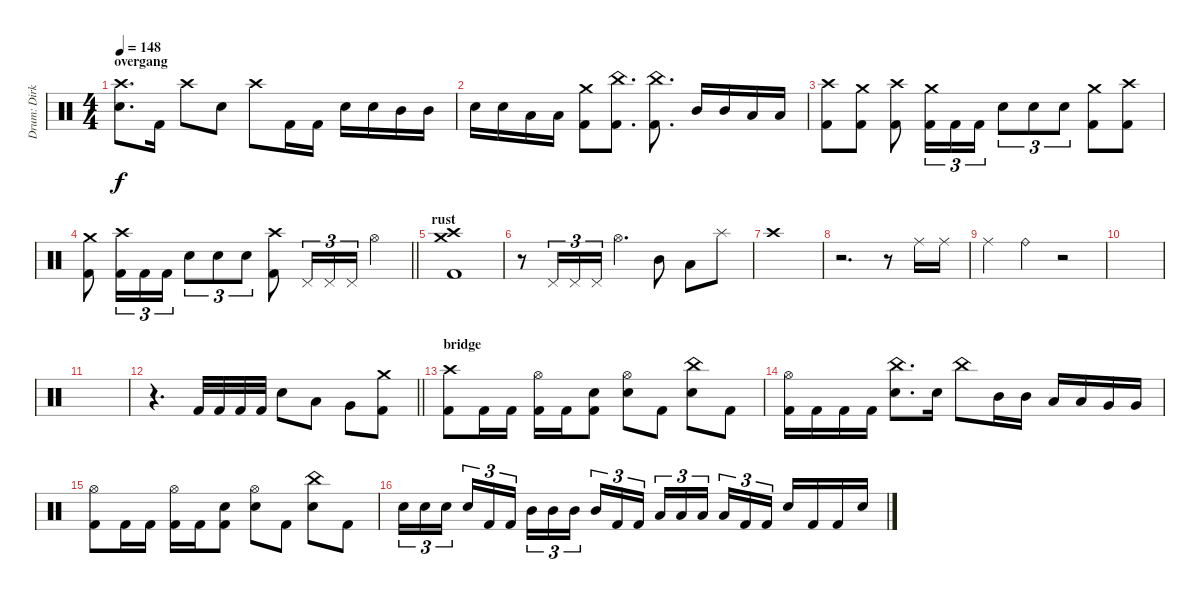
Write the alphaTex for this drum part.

\track ("Drum: Dirk" "Drum: Dirk") {instrument percussion}
\staff {score}
\articulation defaults
\ts (4 4)
\section ("" "overgang")
\tempo 148
\clef neutral
\ks c
("Crash high (hit)" "Electric Snare (hit)").8{d dy f} "Kick (hit) 2".16 "Crash high (hit)".8 "Electric Snare (hit)".8 "Crash high (hit)".8 "Kick (hit) 2".16 "Kick (hit) 2".16 "Electric Snare (hit)".16 "Electric Snare (hit)".16 "Mid Tom (hit)".16 "Mid Tom (hit)".16 |
"Electric Snare (hit)".16 "Electric Snare (hit)".16 "Low Tom (hit)".16 "Low Tom (hit)".16 ("Crash medium (hit)" "Kick (hit) 2").8 ("China (hit)" "Kick (hit) 2").8{d} ("China (hit)" "Kick (hit) 2").8{d} "Mid Tom (hit)".16 "Mid Tom (hit)".16 "Low Tom (hit)".16 "Low Tom (hit)".16 |
("Crash high (hit)" "Kick (hit) 2").8 ("Crash medium (hit)" "Kick (hit) 2").8 ("Crash high (hit)" "Kick (hit) 2").8 ("Crash medium (hit)" "Kick (hit) 2").16{tu (3 2)} "Kick (hit) 2".16{tu (3 2)} "Kick (hit) 2".16{tu (3 2)} "Electric Snare (hit)".8{tu (3 2)} "Electric Snare (hit)".8{tu (3 2)} "Electric Snare (hit)".8{tu (3 2)} ("Crash medium (hit)" "Kick (hit) 2").8 ("Crash high (hit)" "Kick (hit) 2").8 |
\barLineRight lightlight
("Crash medium (hit)" "Kick (hit) 2").8 ("Crash high (hit)" "Kick (hit) 2").16{tu (3 2)} "Kick (hit) 2".16{tu (3 2)} "Kick (hit) 2".16{tu (3 2)} "Electric Snare (hit)".8{tu (3 2)} "Electric Snare (hit)".8{tu (3 2)} "Electric Snare (hit)".8{tu (3 2)} ("Crash high (hit)" "Kick (hit) 2").8 "Pedal Hi-Hat (hit)".16{tu (3 2)} "Pedal Hi-Hat (hit)".16{tu (3 2)} "Pedal Hi-Hat (hit)".16{tu (3 2)} "Hi-Hat (open)".4 |
\section ("" "rust")
("Crash high (hit)" "Crash medium (hit)" "Kick (hit) 2").1 |
r.8 "Pedal Hi-Hat (hit)".16{tu (3 2)} "Pedal Hi-Hat (hit)".16{tu (3 2)} "Pedal Hi-Hat (hit)".16{tu (3 2)} "Hi-Hat (open)".4{d} "Mid Tom (hit)".8 "Low Tom (hit)".8 "Splash (hit)".8 |
"Crash high (hit)".1 |
r.2{d} r.8 "Ride (middle)".16 "Ride (middle)".16 |
"Ride (middle)".4 "Ride (bell)".4 r.2 |
|
|
\barLineRight lightlight
r.4{d} "Kick (hit) 2".32 "Kick (hit) 2".32 "Kick (hit) 2".32 "Kick (hit) 2".32 "Electric Snare (hit)".8 "Low Tom (hit)".8 "Very Low Tom (hit)".8 ("Crash medium (hit)" "Kick (hit) 2").8 |
\section ("" "bridge")
("Crash high (hit)" "Kick (hit) 2").8 "Kick (hit) 2".16 "Kick (hit) 2".16 ("Hi-Hat (open)" "Kick (hit) 2").16 "Kick (hit) 2".16 ("Electric Snare (hit)" "Kick (hit) 2").8 ("Hi-Hat (open)" "Electric Snare (hit)").8 "Kick (hit) 2".8 ("China (hit)" "Electric Snare (hit)").8 "Kick (hit) 2".8 |
("Hi-Hat (open)" "Kick (hit) 2").16 "Kick (hit) 2".16 "Kick (hit) 2".16 "Kick (hit) 2".16 ("China (hit)" "Electric Snare (hit)").8{d} "Electric Snare (hit)".16 "China (hit)".8 "Mid Tom (hit)".16 "Mid Tom (hit)".16 "Low Tom (hit)".16 "Low Tom (hit)".16 "Very Low Tom (hit)".16 "Very Low Tom (hit)".16 |
("Hi-Hat (open)" "Kick (hit) 2").8 "Kick (hit) 2".16 "Kick (hit) 2".16 ("Hi-Hat (open)" "Kick (hit) 2").16 "Kick (hit) 2".16 ("Electric Snare (hit)" "Kick (hit) 2").8 ("Hi-Hat (open)" "Electric Snare (hit)").8 "Kick (hit) 2".8 ("China (hit)" "Electric Snare (hit)").8 "Kick (hit) 2".8 |
"Electric Snare (hit)".16{tu (3 2)} "Electric Snare (hit)".16{tu (3 2)} "Electric Snare (hit)".16{tu (3 2) beam splitsecondary} "Electric Snare (hit)".16{tu (3 2)} "Kick (hit) 2".16{tu (3 2)} "Kick (hit) 2".16{tu (3 2)} "Mid Tom (hit)".16{tu (3 2)} "Mid Tom (hit)".16{tu (3 2)} "Mid Tom (hit)".16{tu (3 2) beam splitsecondary} "Mid Tom (hit)".16{tu (3 2)} "Kick (hit) 2".16{tu (3 2)} "Kick (hit) 2".16{tu (3 2)} "Low Tom (hit)".16{tu (3 2)} "Low Tom (hit)".16{tu (3 2)} "Low Tom (hit)".16{tu (3 2) beam splitsecondary} "Low Tom (hit)".16{tu (3 2)} "Kick (hit) 2".16{tu (3 2)} "Kick (hit) 2".16{tu (3 2)} "Electric Snare (hit)".16 "Kick (hit) 2".16 "Kick (hit) 2".16 "Electric Snare (hit)".16
